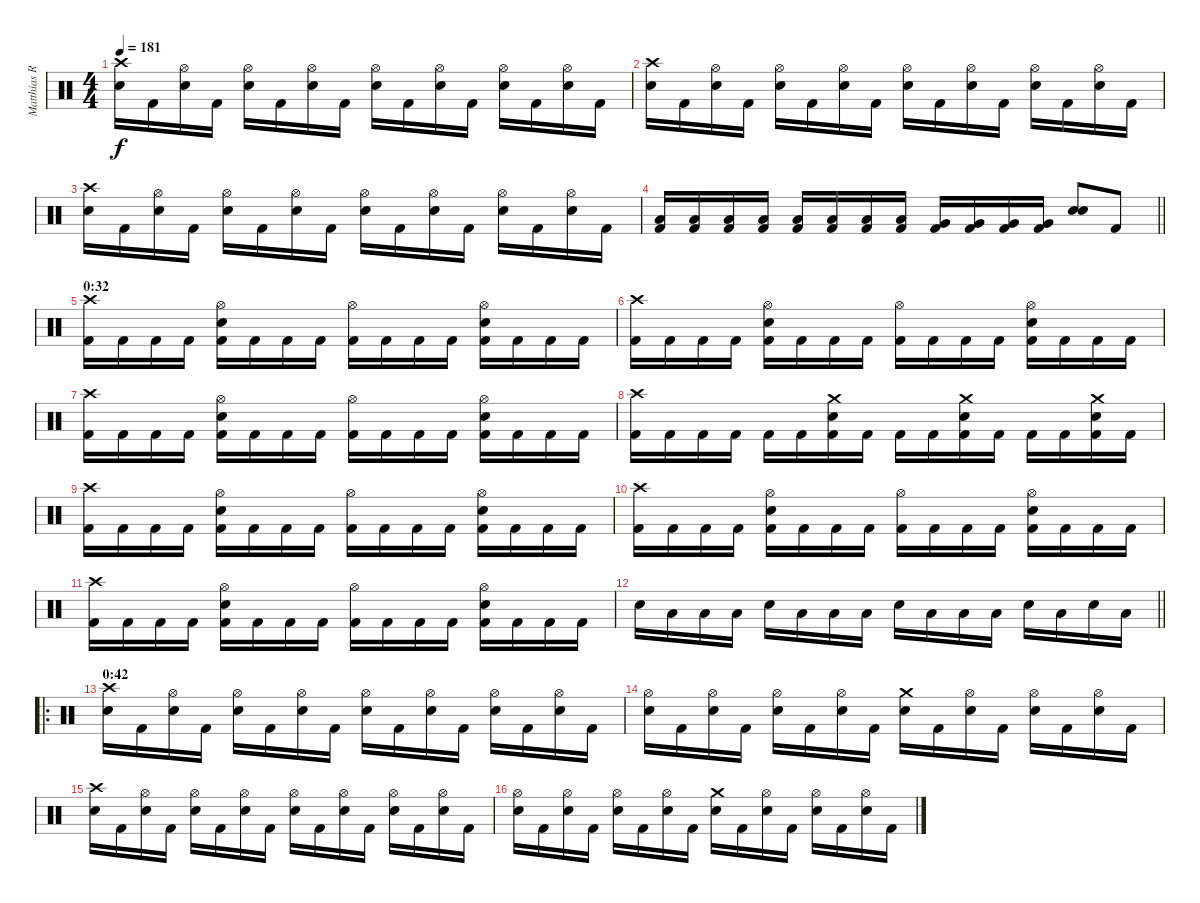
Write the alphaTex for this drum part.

\track ("Matthias R." "Matthias R") {instrument percussion}
\staff {score}
\articulation defaults
\ts (4 4)
\tempo 181
\clef neutral
\ks c
("Snare (hit) 2" "Crash high (hit)").16{dy f} "Kick (hit) 2".16 ("Snare (hit) 2" "Hi-Hat (open)").16 "Kick (hit) 2".16 ("Snare (hit) 2" "Hi-Hat (open)").16 "Kick (hit) 2".16 ("Snare (hit) 2" "Hi-Hat (open)").16 "Kick (hit) 2".16 ("Snare (hit) 2" "Hi-Hat (open)").16 "Kick (hit) 2".16 ("Snare (hit) 2" "Hi-Hat (open)").16 "Kick (hit) 2".16 ("Snare (hit) 2" "Hi-Hat (open)").16 "Kick (hit) 2".16 ("Snare (hit) 2" "Hi-Hat (open)").16 "Kick (hit) 2".16 |
("Snare (hit) 2" "Crash high (hit)").16 "Kick (hit) 2".16 ("Snare (hit) 2" "Hi-Hat (open)").16 "Kick (hit) 2".16 ("Snare (hit) 2" "Hi-Hat (open)").16 "Kick (hit) 2".16 ("Snare (hit) 2" "Hi-Hat (open)").16 "Kick (hit) 2".16 ("Snare (hit) 2" "Hi-Hat (open)").16 "Kick (hit) 2".16 ("Snare (hit) 2" "Hi-Hat (open)").16 "Kick (hit) 2".16 ("Snare (hit) 2" "Hi-Hat (open)").16 "Kick (hit) 2".16 ("Snare (hit) 2" "Hi-Hat (open)").16 "Kick (hit) 2".16 |
("Snare (hit) 2" "Crash high (hit)").16 "Kick (hit) 2".16 ("Snare (hit) 2" "Hi-Hat (open)").16 "Kick (hit) 2".16 ("Snare (hit) 2" "Hi-Hat (open)").16 "Kick (hit) 2".16 ("Snare (hit) 2" "Hi-Hat (open)").16 "Kick (hit) 2".16 ("Snare (hit) 2" "Hi-Hat (open)").16 "Kick (hit) 2".16 ("Snare (hit) 2" "Hi-Hat (open)").16 "Kick (hit) 2".16 ("Snare (hit) 2" "Hi-Hat (open)").16 "Kick (hit) 2".16 ("Snare (hit) 2" "Hi-Hat (open)").16 "Kick (hit) 2".16 |
\barLineRight lightlight
("Kick (hit) 2" "Low Tom (hit)").16 ("Kick (hit) 2" "Low Tom (hit)").16 ("Kick (hit) 2" "Low Tom (hit)").16 ("Kick (hit) 2" "Low Tom (hit)").16 ("Kick (hit) 2" "Low Tom (hit)").16 ("Kick (hit) 2" "Low Tom (hit)").16 ("Kick (hit) 2" "Low Tom (hit)").16 ("Kick (hit) 2" "Low Tom (hit)").16 ("Kick (hit) 2" "Very Low Tom (hit)").16 ("Kick (hit) 2" "Very Low Tom (hit)").16 ("Kick (hit) 2" "Very Low Tom (hit)").16 ("Kick (hit) 2" "Very Low Tom (hit)").16 ("Snare (hit) 2" "Electric Snare (hit)").8{bd 60} "Kick (hit) 2".8 |
\section ("" "0:32")
("Kick (hit) 2" "Crash high (hit)").16 "Kick (hit) 2".16 "Kick (hit) 2".16 "Kick (hit) 2".16 ("Kick (hit) 2" "Snare (hit) 2" "Hi-Hat (open)").16 "Kick (hit) 2".16 "Kick (hit) 2".16 "Kick (hit) 2".16 ("Kick (hit) 2" "Hi-Hat (open)").16 "Kick (hit) 2".16 "Kick (hit) 2".16 "Kick (hit) 2".16 ("Kick (hit) 2" "Snare (hit) 2" "Hi-Hat (open)").16 "Kick (hit) 2".16 "Kick (hit) 2".16 "Kick (hit) 2".16 |
("Kick (hit) 2" "Crash high (hit)").16 "Kick (hit) 2".16 "Kick (hit) 2".16 "Kick (hit) 2".16 ("Kick (hit) 2" "Snare (hit) 2" "Hi-Hat (open)").16 "Kick (hit) 2".16 "Kick (hit) 2".16 "Kick (hit) 2".16 ("Kick (hit) 2" "Hi-Hat (open)").16 "Kick (hit) 2".16 "Kick (hit) 2".16 "Kick (hit) 2".16 ("Kick (hit) 2" "Snare (hit) 2" "Hi-Hat (open)").16 "Kick (hit) 2".16 "Kick (hit) 2".16 "Kick (hit) 2".16 |
("Kick (hit) 2" "Crash high (hit)").16 "Kick (hit) 2".16 "Kick (hit) 2".16 "Kick (hit) 2".16 ("Kick (hit) 2" "Snare (hit) 2" "Hi-Hat (open)").16 "Kick (hit) 2".16 "Kick (hit) 2".16 "Kick (hit) 2".16 ("Kick (hit) 2" "Hi-Hat (open)").16 "Kick (hit) 2".16 "Kick (hit) 2".16 "Kick (hit) 2".16 ("Kick (hit) 2" "Snare (hit) 2" "Hi-Hat (open)").16 "Kick (hit) 2".16 "Kick (hit) 2".16 "Kick (hit) 2".16 |
("Kick (hit) 2" "Crash high (hit)").16 "Kick (hit) 2".16 "Kick (hit) 2".16 "Kick (hit) 2".16 "Kick (hit) 2".16 "Kick (hit) 2".16 ("Kick (hit) 2" "Snare (hit) 2" "Crash medium (hit)").16 "Kick (hit) 2".16 "Kick (hit) 2".16 "Kick (hit) 2".16 ("Kick (hit) 2" "Snare (hit) 2" "Crash medium (hit)").16 "Kick (hit) 2".16 "Kick (hit) 2".16 "Kick (hit) 2".16 ("Kick (hit) 2" "Snare (hit) 2" "Crash medium (hit)").16 "Kick (hit) 2".16 |
("Kick (hit) 2" "Crash high (hit)").16 "Kick (hit) 2".16 "Kick (hit) 2".16 "Kick (hit) 2".16 ("Kick (hit) 2" "Snare (hit) 2" "Hi-Hat (open)").16 "Kick (hit) 2".16 "Kick (hit) 2".16 "Kick (hit) 2".16 ("Kick (hit) 2" "Hi-Hat (open)").16 "Kick (hit) 2".16 "Kick (hit) 2".16 "Kick (hit) 2".16 ("Kick (hit) 2" "Snare (hit) 2" "Hi-Hat (open)").16 "Kick (hit) 2".16 "Kick (hit) 2".16 "Kick (hit) 2".16 |
("Kick (hit) 2" "Crash high (hit)").16 "Kick (hit) 2".16 "Kick (hit) 2".16 "Kick (hit) 2".16 ("Kick (hit) 2" "Snare (hit) 2" "Hi-Hat (open)").16 "Kick (hit) 2".16 "Kick (hit) 2".16 "Kick (hit) 2".16 ("Kick (hit) 2" "Hi-Hat (open)").16 "Kick (hit) 2".16 "Kick (hit) 2".16 "Kick (hit) 2".16 ("Kick (hit) 2" "Snare (hit) 2" "Hi-Hat (open)").16 "Kick (hit) 2".16 "Kick (hit) 2".16 "Kick (hit) 2".16 |
("Kick (hit) 2" "Crash high (hit)").16 "Kick (hit) 2".16 "Kick (hit) 2".16 "Kick (hit) 2".16 ("Kick (hit) 2" "Snare (hit) 2" "Hi-Hat (open)").16 "Kick (hit) 2".16 "Kick (hit) 2".16 "Kick (hit) 2".16 ("Kick (hit) 2" "Hi-Hat (open)").16 "Kick (hit) 2".16 "Kick (hit) 2".16 "Kick (hit) 2".16 ("Kick (hit) 2" "Snare (hit) 2" "Hi-Hat (open)").16 "Kick (hit) 2".16 "Kick (hit) 2".16 "Kick (hit) 2".16 |
\barLineRight lightlight "Snare (hit) 2".16 "Low Tom (hit)".16 "Low Tom (hit)".16 "Low Tom (hit)".16 "Snare (hit) 2".16 "Low Tom (hit)".16 "Low Tom (hit)".16 "Low Tom (hit)".16 "Snare (hit) 2".16 "Low Tom (hit)".16 "Low Tom (hit)".16 "Low Tom (hit)".16 "Snare (hit) 2".16 "Low Tom (hit)".16 "Snare (hit) 2".16 "Low Tom (hit)".16
|
\ro
\section ("" "0:42")
("Snare (hit) 2" "Crash high (hit)").16 "Kick (hit) 2".16 ("Snare (hit) 2" "Hi-Hat (open)").16 "Kick (hit) 2".16 ("Snare (hit) 2" "Hi-Hat (open)").16 "Kick (hit) 2".16 ("Snare (hit) 2" "Hi-Hat (open)").16 "Kick (hit) 2".16 ("Snare (hit) 2" "Hi-Hat (open)").16 "Kick (hit) 2".16 ("Snare (hit) 2" "Hi-Hat (open)").16 "Kick (hit) 2".16 ("Snare (hit) 2" "Hi-Hat (open)").16 "Kick (hit) 2".16 ("Snare (hit) 2" "Hi-Hat (open)").16 "Kick (hit) 2".16 |
("Snare (hit) 2" "Hi-Hat (open)").16 "Kick (hit) 2".16 ("Snare (hit) 2" "Hi-Hat (open)").16 "Kick (hit) 2".16 ("Snare (hit) 2" "Hi-Hat (open)").16 "Kick (hit) 2".16 ("Snare (hit) 2" "Hi-Hat (open)").16 "Kick (hit) 2".16 ("Snare (hit) 2" "Crash medium (hit)").16 "Kick (hit) 2".16 ("Snare (hit) 2" "Hi-Hat (open)").16 "Kick (hit) 2".16 ("Snare (hit) 2" "Hi-Hat (open)").16 "Kick (hit) 2".16 ("Snare (hit) 2" "Hi-Hat (open)").16 "Kick (hit) 2".16 |
("Snare (hit) 2" "Crash high (hit)").16 "Kick (hit) 2".16 ("Snare (hit) 2" "Hi-Hat (open)").16 "Kick (hit) 2".16 ("Snare (hit) 2" "Hi-Hat (open)").16 "Kick (hit) 2".16 ("Snare (hit) 2" "Hi-Hat (open)").16 "Kick (hit) 2".16 ("Snare (hit) 2" "Hi-Hat (open)").16 "Kick (hit) 2".16 ("Snare (hit) 2" "Hi-Hat (open)").16 "Kick (hit) 2".16 ("Snare (hit) 2" "Hi-Hat (open)").16 "Kick (hit) 2".16 ("Snare (hit) 2" "Hi-Hat (open)").16 "Kick (hit) 2".16 |
("Snare (hit) 2" "Hi-Hat (open)").16 "Kick (hit) 2".16 ("Snare (hit) 2" "Hi-Hat (open)").16 "Kick (hit) 2".16 ("Snare (hit) 2" "Hi-Hat (open)").16 "Kick (hit) 2".16 ("Snare (hit) 2" "Hi-Hat (open)").16 "Kick (hit) 2".16 ("Snare (hit) 2" "Crash medium (hit)").16 "Kick (hit) 2".16 ("Snare (hit) 2" "Hi-Hat (open)").16 "Kick (hit) 2".16 ("Snare (hit) 2" "Hi-Hat (open)").16 "Kick (hit) 2".16 ("Snare (hit) 2" "Hi-Hat (open)").16 "Kick (hit) 2".16
